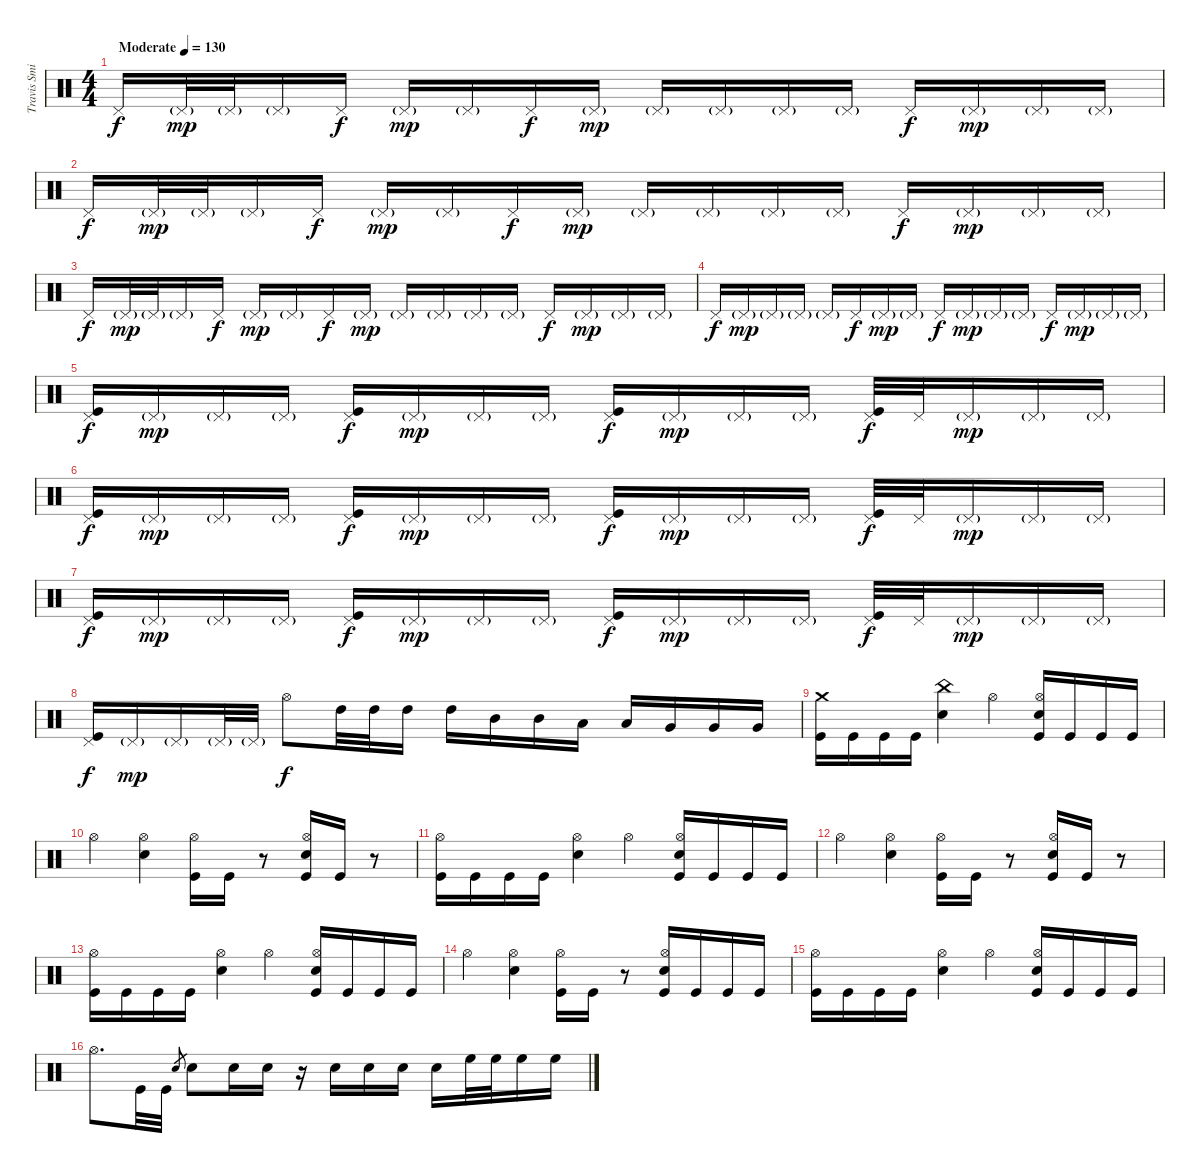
\track ("Travis Smith" "Travis Smi") {instrument percussion}
\staff {score}
\articulation defaults
\ts (4 4)
\tempo (130 "Moderate")
\clef neutral
\ks c "Pedal Hi-Hat (hit)".16{dy f} "Pedal Hi-Hat (hit)"{g}.32{dy mp} "Pedal Hi-Hat (hit)"{g}.32 "Pedal Hi-Hat (hit)"{g}.16 "Pedal Hi-Hat (hit)".16{dy f} "Pedal Hi-Hat (hit)"{g}.16{dy mp} "Pedal Hi-Hat (hit)"{g}.16 "Pedal Hi-Hat (hit)".16{dy f} "Pedal Hi-Hat (hit)"{g}.16{dy mp} "Pedal Hi-Hat (hit)"{g}.16 "Pedal Hi-Hat (hit)"{g}.16 "Pedal Hi-Hat (hit)"{g}.16 "Pedal Hi-Hat (hit)"{g}.16 "Pedal Hi-Hat (hit)".16{dy f} "Pedal Hi-Hat (hit)"{g}.16{dy mp} "Pedal Hi-Hat (hit)"{g}.16 "Pedal Hi-Hat (hit)"{g}.16
|
"Pedal Hi-Hat (hit)".16{dy f} "Pedal Hi-Hat (hit)"{g}.32{dy mp} "Pedal Hi-Hat (hit)"{g}.32 "Pedal Hi-Hat (hit)"{g}.16 "Pedal Hi-Hat (hit)".16{dy f} "Pedal Hi-Hat (hit)"{g}.16{dy mp} "Pedal Hi-Hat (hit)"{g}.16 "Pedal Hi-Hat (hit)".16{dy f} "Pedal Hi-Hat (hit)"{g}.16{dy mp} "Pedal Hi-Hat (hit)"{g}.16 "Pedal Hi-Hat (hit)"{g}.16 "Pedal Hi-Hat (hit)"{g}.16 "Pedal Hi-Hat (hit)"{g}.16 "Pedal Hi-Hat (hit)".16{dy f} "Pedal Hi-Hat (hit)"{g}.16{dy mp} "Pedal Hi-Hat (hit)"{g}.16 "Pedal Hi-Hat (hit)"{g}.16 |
"Pedal Hi-Hat (hit)".16{dy f} "Pedal Hi-Hat (hit)"{g}.32{dy mp} "Pedal Hi-Hat (hit)"{g}.32 "Pedal Hi-Hat (hit)"{g}.16 "Pedal Hi-Hat (hit)".16{dy f} "Pedal Hi-Hat (hit)"{g}.16{dy mp} "Pedal Hi-Hat (hit)"{g}.16 "Pedal Hi-Hat (hit)".16{dy f} "Pedal Hi-Hat (hit)"{g}.16{dy mp} "Pedal Hi-Hat (hit)"{g}.16 "Pedal Hi-Hat (hit)"{g}.16 "Pedal Hi-Hat (hit)"{g}.16 "Pedal Hi-Hat (hit)"{g}.16 "Pedal Hi-Hat (hit)".16{dy f} "Pedal Hi-Hat (hit)"{g}.16{dy mp} "Pedal Hi-Hat (hit)"{g}.16 "Pedal Hi-Hat (hit)"{g}.16 |
"Pedal Hi-Hat (hit)".16{dy f} "Pedal Hi-Hat (hit)"{g}.16{dy mp} "Pedal Hi-Hat (hit)"{g}.16 "Pedal Hi-Hat (hit)"{g}.16 "Pedal Hi-Hat (hit)"{g}.16 "Pedal Hi-Hat (hit)".16{dy f} "Pedal Hi-Hat (hit)"{g}.16{dy mp} "Pedal Hi-Hat (hit)"{g}.16 "Pedal Hi-Hat (hit)".16{dy f} "Pedal Hi-Hat (hit)"{g}.16{dy mp} "Pedal Hi-Hat (hit)"{g}.16 "Pedal Hi-Hat (hit)"{g}.16 "Pedal Hi-Hat (hit)".16{dy f} "Pedal Hi-Hat (hit)"{g}.16{dy mp} "Pedal Hi-Hat (hit)"{g}.16 "Pedal Hi-Hat (hit)"{g}.16 |
("Pedal Hi-Hat (hit)" "Kick (hit)").16{dy f} "Pedal Hi-Hat (hit)"{g}.16{dy mp} "Pedal Hi-Hat (hit)"{g}.16 "Pedal Hi-Hat (hit)"{g}.16 ("Pedal Hi-Hat (hit)" "Kick (hit)").16{dy f} "Pedal Hi-Hat (hit)"{g}.16{dy mp} "Pedal Hi-Hat (hit)"{g}.16 "Pedal Hi-Hat (hit)"{g}.16 ("Pedal Hi-Hat (hit)" "Kick (hit)").16{dy f} "Pedal Hi-Hat (hit)"{g}.16{dy mp} "Pedal Hi-Hat (hit)"{g}.16 "Pedal Hi-Hat (hit)"{g}.16 ("Pedal Hi-Hat (hit)" "Kick (hit)").32{dy f} "Pedal Hi-Hat (hit)".32 "Pedal Hi-Hat (hit)"{g}.16{dy mp} "Pedal Hi-Hat (hit)"{g}.16 "Pedal Hi-Hat (hit)"{g}.16 |
("Pedal Hi-Hat (hit)" "Kick (hit)").16{dy f} "Pedal Hi-Hat (hit)"{g}.16{dy mp} "Pedal Hi-Hat (hit)"{g}.16 "Pedal Hi-Hat (hit)"{g}.16 ("Pedal Hi-Hat (hit)" "Kick (hit)").16{dy f} "Pedal Hi-Hat (hit)"{g}.16{dy mp} "Pedal Hi-Hat (hit)"{g}.16 "Pedal Hi-Hat (hit)"{g}.16 ("Pedal Hi-Hat (hit)" "Kick (hit)").16{dy f} "Pedal Hi-Hat (hit)"{g}.16{dy mp} "Pedal Hi-Hat (hit)"{g}.16 "Pedal Hi-Hat (hit)"{g}.16 ("Pedal Hi-Hat (hit)" "Kick (hit)").32{dy f} "Pedal Hi-Hat (hit)".32 "Pedal Hi-Hat (hit)"{g}.16{dy mp} "Pedal Hi-Hat (hit)"{g}.16 "Pedal Hi-Hat (hit)"{g}.16 |
("Pedal Hi-Hat (hit)" "Kick (hit)").16{dy f} "Pedal Hi-Hat (hit)"{g}.16{dy mp} "Pedal Hi-Hat (hit)"{g}.16 "Pedal Hi-Hat (hit)"{g}.16 ("Pedal Hi-Hat (hit)" "Kick (hit)").16{dy f} "Pedal Hi-Hat (hit)"{g}.16{dy mp} "Pedal Hi-Hat (hit)"{g}.16 "Pedal Hi-Hat (hit)"{g}.16 ("Pedal Hi-Hat (hit)" "Kick (hit)").16{dy f} "Pedal Hi-Hat (hit)"{g}.16{dy mp} "Pedal Hi-Hat (hit)"{g}.16 "Pedal Hi-Hat (hit)"{g}.16 ("Pedal Hi-Hat (hit)" "Kick (hit)").32{dy f} "Pedal Hi-Hat (hit)".32 "Pedal Hi-Hat (hit)"{g}.16{dy mp} "Pedal Hi-Hat (hit)"{g}.16 "Pedal Hi-Hat (hit)"{g}.16 |
("Pedal Hi-Hat (hit)" "Kick (hit)").16{dy f} "Pedal Hi-Hat (hit)"{g}.16{dy mp} "Pedal Hi-Hat (hit)"{g}.16 "Pedal Hi-Hat (hit)"{g}.32 "Pedal Hi-Hat (hit)"{g}.32 "Hi-Hat (open)".8{dy f} "High Tom (hit)".32 "High Tom (hit)".32 "High Tom (hit)".16 "High Tom (hit)".16 "Mid Tom (hit)".16 "Mid Tom (hit)".16 "Low Tom (hit)".16 "Low Tom (hit)".16 "Very Low Tom (hit)".16 "Very Low Tom (hit)".16 "Very Low Tom (hit)".16 |
("Crash medium (hit)" "Kick (hit)").16 "Kick (hit)".16 "Kick (hit)".16 "Kick (hit)".16 ("China (hit)" "Snare (hit) 2").4 "Hi-Hat (open)".4 ("Hi-Hat (open)" "Snare (hit) 2" "Kick (hit)").16 "Kick (hit)".16 "Kick (hit)".16 "Kick (hit)".16 |
"Hi-Hat (open)".4 ("Hi-Hat (open)" "Snare (hit) 2").4 ("Hi-Hat (open)" "Kick (hit)").16 "Kick (hit)".16 r.8 ("Hi-Hat (open)" "Snare (hit) 2" "Kick (hit)").16 "Kick (hit)".16 r.8 |
("Hi-Hat (open)" "Kick (hit)").16 "Kick (hit)".16 "Kick (hit)".16 "Kick (hit)".16 ("Hi-Hat (open)" "Snare (hit) 2").4 "Hi-Hat (open)".4 ("Hi-Hat (open)" "Snare (hit) 2" "Kick (hit)").16 "Kick (hit)".16 "Kick (hit)".16 "Kick (hit)".16 |
"Hi-Hat (open)".4 ("Hi-Hat (open)" "Snare (hit) 2").4 ("Hi-Hat (open)" "Kick (hit)").16 "Kick (hit)".16 r.8 ("Hi-Hat (open)" "Snare (hit) 2" "Kick (hit)").16 "Kick (hit)".16 r.8 |
("Hi-Hat (open)" "Kick (hit)").16 "Kick (hit)".16 "Kick (hit)".16 "Kick (hit)".16 ("Hi-Hat (open)" "Snare (hit) 2").4 "Hi-Hat (open)".4 ("Hi-Hat (open)" "Snare (hit) 2" "Kick (hit)").16 "Kick (hit)".16 "Kick (hit)".16 "Kick (hit)".16 |
"Hi-Hat (open)".4 ("Hi-Hat (open)" "Snare (hit) 2").4 ("Hi-Hat (open)" "Kick (hit)").16 "Kick (hit)".16 r.8 ("Hi-Hat (open)" "Snare (hit) 2" "Kick (hit)").16 "Kick (hit)".16 "Kick (hit)".16 "Kick (hit)".16 |
("Hi-Hat (open)" "Kick (hit)").16 "Kick (hit)".16 "Kick (hit)".16 "Kick (hit)".16 ("Hi-Hat (open)" "Snare (hit) 2").4 "Hi-Hat (open)".4 ("Hi-Hat (open)" "Snare (hit) 2" "Kick (hit)").16 "Kick (hit)".16 "Kick (hit)".16 "Kick (hit)".16 |
"Hi-Hat (open)".8{d} "Kick (hit)".32 "Kick (hit)".32 "Snare (hit) 2".8{gr} "Snare (hit) 2".8 "Snare (hit) 2".16 "Snare (hit) 2".16 r.16 "Snare (hit) 2".16 "Snare (hit) 2".16 "Snare (hit) 2".16 "Snare (hit) 2".16 "High Floor Tom (hit)".32 "High Floor Tom (hit)".32 "High Floor Tom (hit)".16 "High Floor Tom (hit)".16
